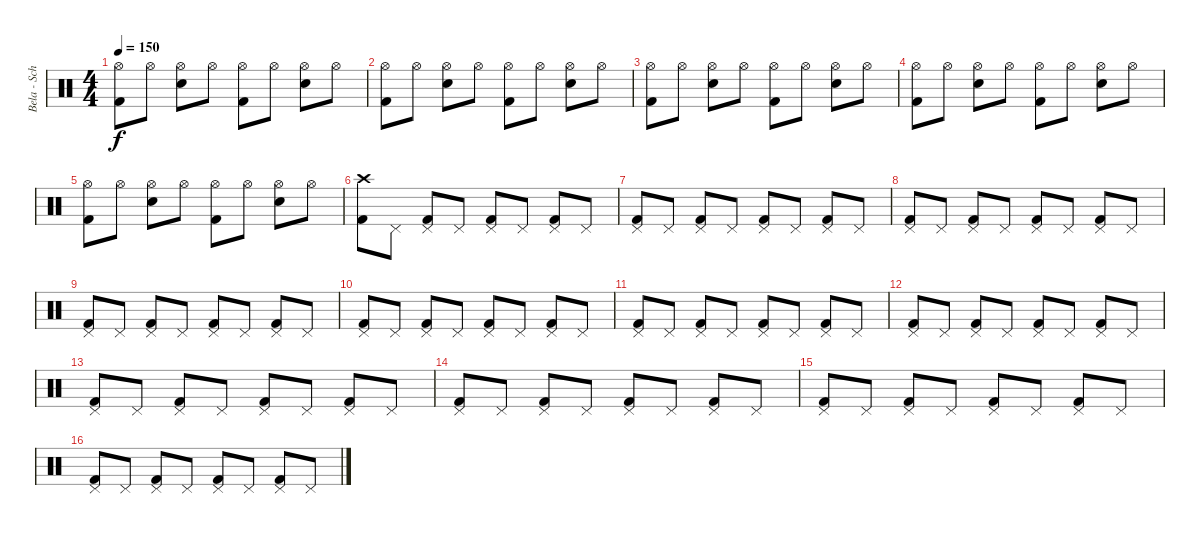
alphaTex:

\track ("Bela - Schlagzeug" "Bela - Sch") {instrument percussion}
\staff {score}
\articulation defaults
\ts (4 4)
\tempo 150
\clef neutral
\ks c
("Hi-Hat (open)" "Kick (hit) 2").8{dy f} "Hi-Hat (open)".8 ("Hi-Hat (open)" "Snare (hit) 2").8 "Hi-Hat (open)".8 ("Hi-Hat (open)" "Kick (hit) 2").8 "Hi-Hat (open)".8 ("Hi-Hat (open)" "Snare (hit) 2").8 "Hi-Hat (open)".8 |
("Hi-Hat (open)" "Kick (hit) 2").8 "Hi-Hat (open)".8 ("Hi-Hat (open)" "Snare (hit) 2").8 "Hi-Hat (open)".8 ("Hi-Hat (open)" "Kick (hit) 2").8 "Hi-Hat (open)".8 ("Hi-Hat (open)" "Snare (hit) 2").8 "Hi-Hat (open)".8 |
("Hi-Hat (open)" "Kick (hit) 2").8 "Hi-Hat (open)".8 ("Hi-Hat (open)" "Snare (hit) 2").8 "Hi-Hat (open)".8 ("Hi-Hat (open)" "Kick (hit) 2").8 "Hi-Hat (open)".8 ("Hi-Hat (open)" "Snare (hit) 2").8 "Hi-Hat (open)".8 |
("Hi-Hat (open)" "Kick (hit) 2").8 "Hi-Hat (open)".8 ("Hi-Hat (open)" "Snare (hit) 2").8 "Hi-Hat (open)".8 ("Hi-Hat (open)" "Kick (hit) 2").8 "Hi-Hat (open)".8 ("Hi-Hat (open)" "Snare (hit) 2").8 "Hi-Hat (open)".8 |
("Hi-Hat (open)" "Kick (hit) 2").8 "Hi-Hat (open)".8 ("Hi-Hat (open)" "Snare (hit) 2").8 "Hi-Hat (open)".8 ("Hi-Hat (open)" "Kick (hit) 2").8 "Hi-Hat (open)".8 ("Hi-Hat (open)" "Snare (hit) 2").8 "Hi-Hat (open)".8 |
("Crash high (hit)" "Kick (hit) 2").8 "Pedal Hi-Hat (hit)".8 ("Pedal Hi-Hat (hit)" "Kick (hit) 2").8 "Pedal Hi-Hat (hit)".8 ("Pedal Hi-Hat (hit)" "Kick (hit) 2").8 "Pedal Hi-Hat (hit)".8 ("Pedal Hi-Hat (hit)" "Kick (hit) 2").8 "Pedal Hi-Hat (hit)".8 |
("Pedal Hi-Hat (hit)" "Kick (hit) 2").8 "Pedal Hi-Hat (hit)".8 ("Pedal Hi-Hat (hit)" "Kick (hit) 2").8 "Pedal Hi-Hat (hit)".8 ("Pedal Hi-Hat (hit)" "Kick (hit) 2").8 "Pedal Hi-Hat (hit)".8 ("Pedal Hi-Hat (hit)" "Kick (hit) 2").8 "Pedal Hi-Hat (hit)".8 |
("Pedal Hi-Hat (hit)" "Kick (hit) 2").8 "Pedal Hi-Hat (hit)".8 ("Pedal Hi-Hat (hit)" "Kick (hit) 2").8 "Pedal Hi-Hat (hit)".8 ("Pedal Hi-Hat (hit)" "Kick (hit) 2").8 "Pedal Hi-Hat (hit)".8 ("Pedal Hi-Hat (hit)" "Kick (hit) 2").8 "Pedal Hi-Hat (hit)".8 |
("Pedal Hi-Hat (hit)" "Kick (hit) 2").8 "Pedal Hi-Hat (hit)".8 ("Pedal Hi-Hat (hit)" "Kick (hit) 2").8 "Pedal Hi-Hat (hit)".8 ("Pedal Hi-Hat (hit)" "Kick (hit) 2").8 "Pedal Hi-Hat (hit)".8 ("Pedal Hi-Hat (hit)" "Kick (hit) 2").8 "Pedal Hi-Hat (hit)".8 |
("Pedal Hi-Hat (hit)" "Kick (hit) 2").8 "Pedal Hi-Hat (hit)".8 ("Pedal Hi-Hat (hit)" "Kick (hit) 2").8 "Pedal Hi-Hat (hit)".8 ("Pedal Hi-Hat (hit)" "Kick (hit) 2").8 "Pedal Hi-Hat (hit)".8 ("Pedal Hi-Hat (hit)" "Kick (hit) 2").8 "Pedal Hi-Hat (hit)".8 |
("Pedal Hi-Hat (hit)" "Kick (hit) 2").8 "Pedal Hi-Hat (hit)".8 ("Pedal Hi-Hat (hit)" "Kick (hit) 2").8 "Pedal Hi-Hat (hit)".8 ("Pedal Hi-Hat (hit)" "Kick (hit) 2").8 "Pedal Hi-Hat (hit)".8 ("Pedal Hi-Hat (hit)" "Kick (hit) 2").8 "Pedal Hi-Hat (hit)".8 |
("Pedal Hi-Hat (hit)" "Kick (hit) 2").8 "Pedal Hi-Hat (hit)".8 ("Pedal Hi-Hat (hit)" "Kick (hit) 2").8 "Pedal Hi-Hat (hit)".8 ("Pedal Hi-Hat (hit)" "Kick (hit) 2").8 "Pedal Hi-Hat (hit)".8 ("Pedal Hi-Hat (hit)" "Kick (hit) 2").8 "Pedal Hi-Hat (hit)".8 |
("Pedal Hi-Hat (hit)" "Kick (hit) 2").8 "Pedal Hi-Hat (hit)".8 ("Pedal Hi-Hat (hit)" "Kick (hit) 2").8 "Pedal Hi-Hat (hit)".8 ("Pedal Hi-Hat (hit)" "Kick (hit) 2").8 "Pedal Hi-Hat (hit)".8 ("Pedal Hi-Hat (hit)" "Kick (hit) 2").8 "Pedal Hi-Hat (hit)".8 |
("Pedal Hi-Hat (hit)" "Kick (hit) 2").8 "Pedal Hi-Hat (hit)".8 ("Pedal Hi-Hat (hit)" "Kick (hit) 2").8 "Pedal Hi-Hat (hit)".8 ("Pedal Hi-Hat (hit)" "Kick (hit) 2").8 "Pedal Hi-Hat (hit)".8 ("Pedal Hi-Hat (hit)" "Kick (hit) 2").8 "Pedal Hi-Hat (hit)".8 |
("Pedal Hi-Hat (hit)" "Kick (hit) 2").8 "Pedal Hi-Hat (hit)".8 ("Pedal Hi-Hat (hit)" "Kick (hit) 2").8 "Pedal Hi-Hat (hit)".8 ("Pedal Hi-Hat (hit)" "Kick (hit) 2").8 "Pedal Hi-Hat (hit)".8 ("Pedal Hi-Hat (hit)" "Kick (hit) 2").8 "Pedal Hi-Hat (hit)".8 |
("Pedal Hi-Hat (hit)" "Kick (hit) 2").8 "Pedal Hi-Hat (hit)".8 ("Pedal Hi-Hat (hit)" "Kick (hit) 2").8 "Pedal Hi-Hat (hit)".8 ("Pedal Hi-Hat (hit)" "Kick (hit) 2").8 "Pedal Hi-Hat (hit)".8 ("Pedal Hi-Hat (hit)" "Kick (hit) 2").8 "Pedal Hi-Hat (hit)".8
